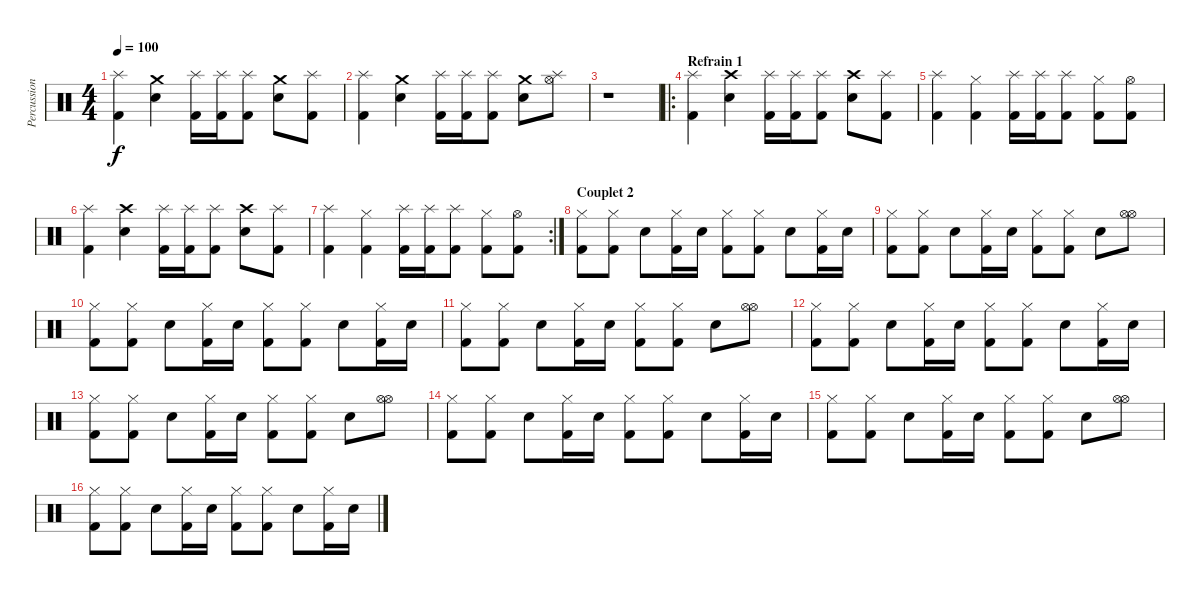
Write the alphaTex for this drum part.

\track ("Percussions" "Percussion") {instrument percussion}
\staff {score}
\articulation defaults
\ts (4 4)
\tempo 100
\clef neutral
\ks c
("Splash (hit)" "Kick (hit) 2").4{dy f} ("Crash medium (hit)" "Snare (hit) 2").4 ("Splash (hit)" "Kick (hit) 2").16 ("Splash (hit)" "Kick (hit) 2").16 ("Splash (hit)" "Kick (hit) 2").8 ("Crash medium (hit)" "Snare (hit) 2").8 ("Splash (hit)" "Kick (hit) 2").8 |
("Splash (hit)" "Kick (hit) 2").4 ("Crash medium (hit)" "Snare (hit) 2").4 ("Splash (hit)" "Kick (hit) 2").16 ("Splash (hit)" "Kick (hit) 2").16 ("Splash (hit)" "Kick (hit) 2").8 ("Crash medium (hit)" "Snare (hit) 2").8 ("Splash (hit)" "Hi-Hat (open)").8 |
r.1 |
\ro
\section ("" "Refrain 1")
("Splash (hit)" "Kick (hit) 2").4 ("Snare (hit) 2" "Crash high (hit)").4 ("Splash (hit)" "Kick (hit) 2").16 ("Splash (hit)" "Kick (hit) 2").16 ("Splash (hit)" "Kick (hit) 2").8 ("Snare (hit) 2" "Crash high (hit)").8 ("Splash (hit)" "Kick (hit) 2").8 |
("Splash (hit)" "Kick (hit) 2").4 ("Hi-Hat (closed)" "Kick (hit) 2").4 ("Splash (hit)" "Kick (hit) 2").16 ("Splash (hit)" "Kick (hit) 2").16 ("Splash (hit)" "Kick (hit) 2").8 ("Hi-Hat (closed)" "Kick (hit) 2").8 ("Hi-Hat (open)" "Kick (hit) 2").8 |
("Splash (hit)" "Kick (hit) 2").4 ("Crash high (hit)" "Snare (hit) 2").4 ("Splash (hit)" "Kick (hit) 2").16 ("Splash (hit)" "Kick (hit) 2").16 ("Splash (hit)" "Kick (hit) 2").8 ("Crash high (hit)" "Snare (hit) 2").8 ("Splash (hit)" "Kick (hit) 2").8 |
\rc 2
("Splash (hit)" "Kick (hit) 2").4 ("Hi-Hat (closed)" "Kick (hit) 2").4 ("Splash (hit)" "Kick (hit) 2").16 ("Splash (hit)" "Kick (hit) 2").16 ("Splash (hit)" "Kick (hit) 2").8 ("Hi-Hat (closed)" "Kick (hit) 2").8 ("Hi-Hat (open)" "Kick (hit) 2").8 |
\section ("" "Couplet 2")
("Hi-Hat (closed)" "Kick (hit) 2").8 ("Hi-Hat (closed)" "Kick (hit) 2").8 "Snare (hit) 2".8 ("Hi-Hat (closed)" "Kick (hit) 2").16 "Snare (hit) 2".16 ("Hi-Hat (closed)" "Kick (hit) 2").8 ("Hi-Hat (closed)" "Kick (hit) 2").8 "Snare (hit) 2".8 ("Hi-Hat (closed)" "Kick (hit) 2").16 "Snare (hit) 2".16 |
("Hi-Hat (closed)" "Kick (hit) 2").8 ("Hi-Hat (closed)" "Kick (hit) 2").8 "Snare (hit) 2".8 ("Hi-Hat (closed)" "Kick (hit) 2").16 "Snare (hit) 2".16 ("Hi-Hat (closed)" "Kick (hit) 2").8 ("Hi-Hat (closed)" "Kick (hit) 2").8 "Snare (hit) 2".8 ("Hi-Hat (open)" "Hi-Hat (open)").8 |
("Hi-Hat (closed)" "Kick (hit) 2").8 ("Hi-Hat (closed)" "Kick (hit) 2").8 "Snare (hit) 2".8 ("Hi-Hat (closed)" "Kick (hit) 2").16 "Snare (hit) 2".16 ("Hi-Hat (closed)" "Kick (hit) 2").8 ("Hi-Hat (closed)" "Kick (hit) 2").8 "Snare (hit) 2".8 ("Hi-Hat (closed)" "Kick (hit) 2").16 "Snare (hit) 2".16 |
("Hi-Hat (closed)" "Kick (hit) 2").8 ("Hi-Hat (closed)" "Kick (hit) 2").8 "Snare (hit) 2".8 ("Hi-Hat (closed)" "Kick (hit) 2").16 "Snare (hit) 2".16 ("Hi-Hat (closed)" "Kick (hit) 2").8 ("Hi-Hat (closed)" "Kick (hit) 2").8 "Snare (hit) 2".8 ("Hi-Hat (open)" "Hi-Hat (open)").8 |
("Hi-Hat (closed)" "Kick (hit) 2").8 ("Hi-Hat (closed)" "Kick (hit) 2").8 "Snare (hit) 2".8 ("Hi-Hat (closed)" "Kick (hit) 2").16 "Snare (hit) 2".16 ("Hi-Hat (closed)" "Kick (hit) 2").8 ("Hi-Hat (closed)" "Kick (hit) 2").8 "Snare (hit) 2".8 ("Hi-Hat (closed)" "Kick (hit) 2").16 "Snare (hit) 2".16 |
("Hi-Hat (closed)" "Kick (hit) 2").8 ("Hi-Hat (closed)" "Kick (hit) 2").8 "Snare (hit) 2".8 ("Hi-Hat (closed)" "Kick (hit) 2").16 "Snare (hit) 2".16 ("Hi-Hat (closed)" "Kick (hit) 2").8 ("Hi-Hat (closed)" "Kick (hit) 2").8 "Snare (hit) 2".8 ("Hi-Hat (open)" "Hi-Hat (open)").8 |
("Hi-Hat (closed)" "Kick (hit) 2").8 ("Hi-Hat (closed)" "Kick (hit) 2").8 "Snare (hit) 2".8 ("Hi-Hat (closed)" "Kick (hit) 2").16 "Snare (hit) 2".16 ("Hi-Hat (closed)" "Kick (hit) 2").8 ("Hi-Hat (closed)" "Kick (hit) 2").8 "Snare (hit) 2".8 ("Hi-Hat (closed)" "Kick (hit) 2").16 "Snare (hit) 2".16 |
("Hi-Hat (closed)" "Kick (hit) 2").8 ("Hi-Hat (closed)" "Kick (hit) 2").8 "Snare (hit) 2".8 ("Hi-Hat (closed)" "Kick (hit) 2").16 "Snare (hit) 2".16 ("Hi-Hat (closed)" "Kick (hit) 2").8 ("Hi-Hat (closed)" "Kick (hit) 2").8 "Snare (hit) 2".8 ("Hi-Hat (open)" "Hi-Hat (open)").8 |
("Hi-Hat (closed)" "Kick (hit) 2").8 ("Hi-Hat (closed)" "Kick (hit) 2").8 "Snare (hit) 2".8 ("Hi-Hat (closed)" "Kick (hit) 2").16 "Snare (hit) 2".16 ("Hi-Hat (closed)" "Kick (hit) 2").8 ("Hi-Hat (closed)" "Kick (hit) 2").8 "Snare (hit) 2".8 ("Hi-Hat (closed)" "Kick (hit) 2").16 "Snare (hit) 2".16
